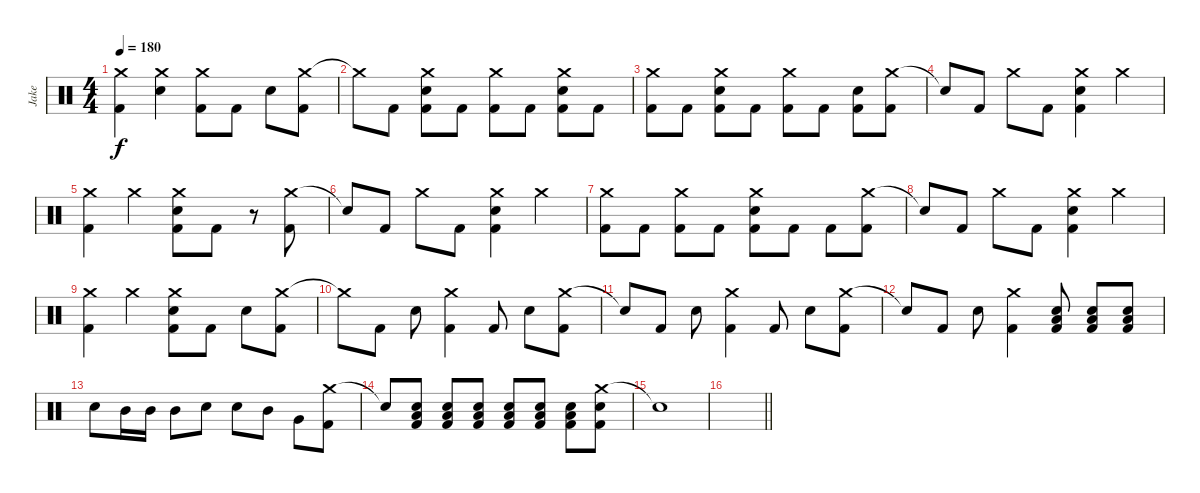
\track ("Jake" "Jake") {instrument percussion}
\staff {score}
\articulation defaults
\ts (4 4)
\tempo 180
\clef neutral
\ks c
("Crash medium (hit)" "Kick (hit) 2").4{dy f} ("Crash medium (hit)" "Electric Snare (hit)").4 ("Crash medium (hit)" "Kick (hit) 2").8 "Kick (hit) 2".8 "Electric Snare (hit)".8 ("Crash medium (hit)" "Kick (hit) 2").8 |
"Crash medium (hit)"{t}.8 "Kick (hit) 2".8 ("Crash medium (hit)" "Electric Snare (hit)" "Kick (hit) 2").8 "Kick (hit) 2".8 ("Crash medium (hit)" "Kick (hit) 2").8 "Kick (hit) 2".8 ("Crash medium (hit)" "Electric Snare (hit)" "Kick (hit) 2").8 "Kick (hit) 2".8 |
("Crash medium (hit)" "Kick (hit) 2").8 "Kick (hit) 2".8 ("Crash medium (hit)" "Electric Snare (hit)" "Kick (hit) 2").8 "Kick (hit) 2".8 ("Crash medium (hit)" "Kick (hit) 2").8 "Kick (hit) 2".8 ("Electric Snare (hit)" "Kick (hit) 2").8 ("Crash medium (hit)" "Kick (hit) 2").8 |
"Snare (hit)"{t}.8 "Kick (hit) 2".8 "Crash medium (hit)".8 "Kick (hit) 2".8 ("Crash medium (hit)" "Electric Snare (hit)" "Kick (hit) 2").4 "Crash medium (hit)".4 |
("Crash medium (hit)" "Kick (hit) 2").4 "Crash medium (hit)".4 ("Crash medium (hit)" "Electric Snare (hit)" "Kick (hit) 2").8 "Kick (hit) 2".8 r.8 ("Crash medium (hit)" "Kick (hit) 2").8 |
"Snare (hit)"{t}.8 "Kick (hit) 2".8 "Crash medium (hit)".8 "Kick (hit) 2".8 ("Crash medium (hit)" "Electric Snare (hit)" "Kick (hit) 2").4 "Crash medium (hit)".4 |
("Crash medium (hit)" "Kick (hit) 2").8 "Kick (hit) 2".8 ("Crash medium (hit)" "Kick (hit) 2").8 "Kick (hit) 2".8 ("Crash medium (hit)" "Electric Snare (hit)" "Kick (hit) 2").8 "Kick (hit) 2".8 "Kick (hit) 2".8 ("Crash medium (hit)" "Kick (hit) 2").8 |
"Snare (hit)"{t}.8 "Kick (hit) 2".8 "Crash medium (hit)".8 "Kick (hit) 2".8 ("Crash medium (hit)" "Electric Snare (hit)" "Kick (hit) 2").4 "Crash medium (hit)".4 |
("Crash medium (hit)" "Kick (hit) 2").4 "Crash medium (hit)".4 ("Crash medium (hit)" "Electric Snare (hit)" "Kick (hit) 2").8 "Kick (hit) 2".8 "Electric Snare (hit)".8 ("Crash medium (hit)" "Kick (hit) 2").8 |
"Crash medium (hit)"{t}.8 "Kick (hit) 2".8 "Electric Snare (hit)".8 ("Crash medium (hit)" "Kick (hit) 2").4 "Kick (hit) 2".8 "Electric Snare (hit)".8 ("Crash medium (hit)" "Kick (hit) 2").8 |
"Snare (hit)"{t}.8 "Kick (hit) 2".8 "Electric Snare (hit)".8 ("Crash medium (hit)" "Kick (hit) 2").4 "Kick (hit) 2".8 "Electric Snare (hit)".8 ("Crash medium (hit)" "Kick (hit) 2").8 |
"Snare (hit)"{t}.8 "Kick (hit) 2".8 "Electric Snare (hit)".8 ("Crash medium (hit)" "Kick (hit) 2").4 ("Electric Snare (hit)" "Low Floor Tom (hit)" "Kick (hit) 2").8 ("Electric Snare (hit)" "Low Floor Tom (hit)" "Kick (hit) 2").8 ("Electric Snare (hit)" "Low Floor Tom (hit)" "Kick (hit) 2").8 |
"Electric Snare (hit)".8 "Mid Tom (hit)".16 "Mid Tom (hit)".16 "Mid Tom (hit)".8 "Electric Snare (hit)".8 "Electric Snare (hit)".8 "Mid Tom (hit)".8 "Very Low Tom (hit)".8 ("Crash medium (hit)" "Kick (hit) 2").8 |
"Snare (hit)"{t}.8 ("Electric Snare (hit)" "Low Floor Tom (hit)" "Kick (hit) 2").8 ("Electric Snare (hit)" "Low Floor Tom (hit)" "Kick (hit) 2").8 ("Electric Snare (hit)" "Low Floor Tom (hit)" "Kick (hit) 2").8 ("Electric Snare (hit)" "Low Floor Tom (hit)" "Kick (hit) 2").8 ("Electric Snare (hit)" "Low Floor Tom (hit)" "Kick (hit) 2").8 ("Electric Snare (hit)" "Low Floor Tom (hit)" "Kick (hit) 2").8 ("Crash medium (hit)" "Electric Snare (hit)" "Kick (hit) 2").8 |
"Snare (hit)"{t}.1 |
\barLineRight lightlight
